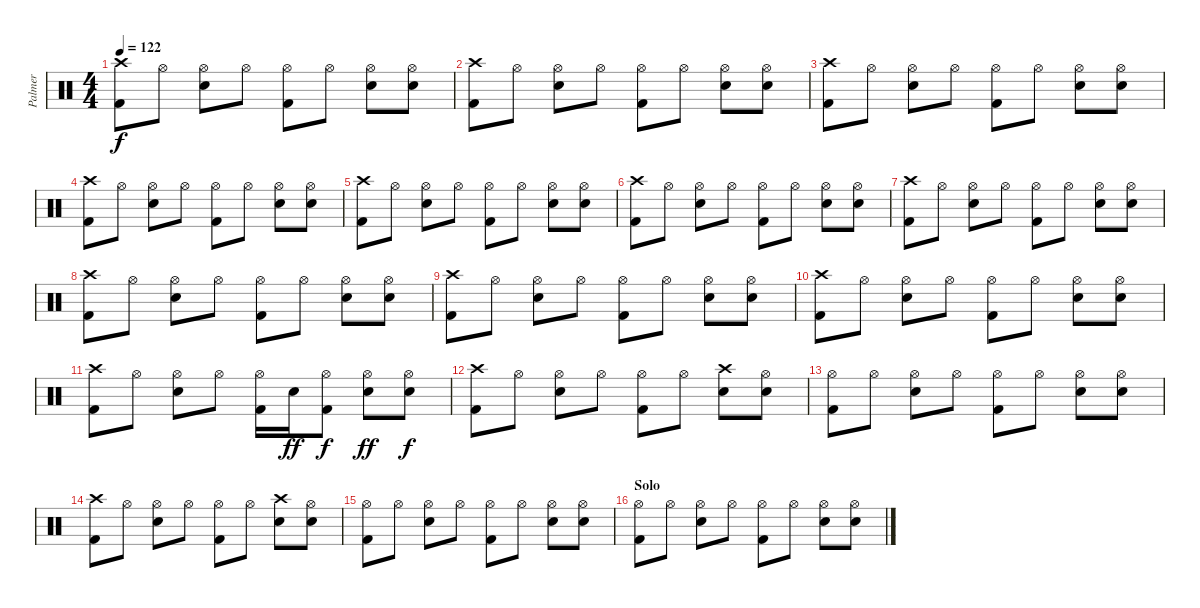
\track ("Palmer" "Palmer") {instrument percussion}
\staff {score}
\articulation defaults
\ts (4 4)
\tempo 122
\clef neutral
\ks c
("Crash high (hit)" "Kick (hit) 2").8{dy f} "Hi-Hat (open)".8 ("Hi-Hat (open)" "Electric Snare (hit)").8 "Hi-Hat (open)".8 ("Hi-Hat (open)" "Kick (hit) 2").8 "Hi-Hat (open)".8 ("Hi-Hat (open)" "Electric Snare (hit)").8 ("Hi-Hat (open)" "Electric Snare (hit)").8 |
("Crash high (hit)" "Kick (hit) 2").8 "Hi-Hat (open)".8 ("Hi-Hat (open)" "Electric Snare (hit)").8 "Hi-Hat (open)".8 ("Hi-Hat (open)" "Kick (hit) 2").8 "Hi-Hat (open)".8 ("Hi-Hat (open)" "Electric Snare (hit)").8 ("Hi-Hat (open)" "Electric Snare (hit)").8 |
("Crash high (hit)" "Kick (hit) 2").8 "Hi-Hat (open)".8 ("Hi-Hat (open)" "Electric Snare (hit)").8 "Hi-Hat (open)".8 ("Hi-Hat (open)" "Kick (hit) 2").8 "Hi-Hat (open)".8 ("Hi-Hat (open)" "Electric Snare (hit)").8 ("Hi-Hat (open)" "Electric Snare (hit)").8 |
("Crash high (hit)" "Kick (hit) 2").8 "Hi-Hat (open)".8 ("Hi-Hat (open)" "Electric Snare (hit)").8 "Hi-Hat (open)".8 ("Hi-Hat (open)" "Kick (hit) 2").8 "Hi-Hat (open)".8 ("Hi-Hat (open)" "Electric Snare (hit)").8 ("Hi-Hat (open)" "Electric Snare (hit)").8 |
("Crash high (hit)" "Kick (hit) 2").8 "Hi-Hat (open)".8 ("Hi-Hat (open)" "Electric Snare (hit)").8 "Hi-Hat (open)".8 ("Hi-Hat (open)" "Kick (hit) 2").8 "Hi-Hat (open)".8 ("Hi-Hat (open)" "Electric Snare (hit)").8 ("Hi-Hat (open)" "Electric Snare (hit)").8 |
("Crash high (hit)" "Kick (hit) 2").8 "Hi-Hat (open)".8 ("Hi-Hat (open)" "Electric Snare (hit)").8 "Hi-Hat (open)".8 ("Hi-Hat (open)" "Kick (hit) 2").8 "Hi-Hat (open)".8 ("Hi-Hat (open)" "Electric Snare (hit)").8 ("Hi-Hat (open)" "Electric Snare (hit)").8 |
("Crash high (hit)" "Kick (hit) 2").8 "Hi-Hat (open)".8 ("Hi-Hat (open)" "Electric Snare (hit)").8 "Hi-Hat (open)".8 ("Hi-Hat (open)" "Kick (hit) 2").8 "Hi-Hat (open)".8 ("Hi-Hat (open)" "Electric Snare (hit)").8 ("Hi-Hat (open)" "Electric Snare (hit)").8 |
("Crash high (hit)" "Kick (hit) 2").8 "Hi-Hat (open)".8 ("Hi-Hat (open)" "Electric Snare (hit)").8 "Hi-Hat (open)".8 ("Hi-Hat (open)" "Kick (hit) 2").8 "Hi-Hat (open)".8 ("Hi-Hat (open)" "Electric Snare (hit)").8 ("Hi-Hat (open)" "Electric Snare (hit)").8 |
("Crash high (hit)" "Kick (hit) 2").8 "Hi-Hat (open)".8 ("Hi-Hat (open)" "Electric Snare (hit)").8 "Hi-Hat (open)".8 ("Hi-Hat (open)" "Kick (hit) 2").8 "Hi-Hat (open)".8 ("Hi-Hat (open)" "Electric Snare (hit)").8 ("Hi-Hat (open)" "Electric Snare (hit)").8 |
("Crash high (hit)" "Kick (hit) 2").8 "Hi-Hat (open)".8 ("Hi-Hat (open)" "Electric Snare (hit)").8 "Hi-Hat (open)".8 ("Hi-Hat (open)" "Kick (hit) 2").8 "Hi-Hat (open)".8 ("Hi-Hat (open)" "Electric Snare (hit)").8 ("Hi-Hat (open)" "Electric Snare (hit)").8 |
("Crash high (hit)" "Kick (hit) 2").8 "Hi-Hat (open)".8 ("Hi-Hat (open)" "Electric Snare (hit)").8 "Hi-Hat (open)".8 ("Hi-Hat (open)" "Kick (hit) 2").16 "Electric Snare (hit)".16{dy ff} ("Hi-Hat (open)" "Kick (hit) 2").8{dy f} ("Hi-Hat (open)" "Electric Snare (hit)").8{dy ff} ("Hi-Hat (open)" "Electric Snare (hit)").8{dy f} |
("Crash high (hit)" "Kick (hit) 2").8 "Hi-Hat (open)".8 ("Hi-Hat (open)" "Electric Snare (hit)").8 "Hi-Hat (open)".8 ("Hi-Hat (open)" "Kick (hit) 2").8 "Hi-Hat (open)".8 ("Crash high (hit)" "Electric Snare (hit)").8 ("Hi-Hat (open)" "Electric Snare (hit)").8 |
("Hi-Hat (open)" "Kick (hit) 2").8 "Hi-Hat (open)".8 ("Hi-Hat (open)" "Electric Snare (hit)").8 "Hi-Hat (open)".8 ("Hi-Hat (open)" "Kick (hit) 2").8 "Hi-Hat (open)".8 ("Hi-Hat (open)" "Electric Snare (hit)").8 ("Hi-Hat (open)" "Electric Snare (hit)").8 |
("Crash high (hit)" "Kick (hit) 2").8 "Hi-Hat (open)".8 ("Hi-Hat (open)" "Electric Snare (hit)").8 "Hi-Hat (open)".8 ("Hi-Hat (open)" "Kick (hit) 2").8 "Hi-Hat (open)".8 ("Crash high (hit)" "Electric Snare (hit)").8 ("Hi-Hat (open)" "Electric Snare (hit)").8 |
("Hi-Hat (open)" "Kick (hit) 2").8 "Hi-Hat (open)".8 ("Hi-Hat (open)" "Electric Snare (hit)").8 "Hi-Hat (open)".8 ("Hi-Hat (open)" "Kick (hit) 2").8 "Hi-Hat (open)".8 ("Hi-Hat (open)" "Electric Snare (hit)").8 ("Hi-Hat (open)" "Electric Snare (hit)").8 |
\section ("" "Solo")
("Hi-Hat (open)" "Kick (hit) 2").8 "Hi-Hat (open)".8 ("Hi-Hat (open)" "Electric Snare (hit)").8 "Hi-Hat (open)".8 ("Hi-Hat (open)" "Kick (hit) 2").8 "Hi-Hat (open)".8 ("Hi-Hat (open)" "Electric Snare (hit)").8 ("Hi-Hat (open)" "Electric Snare (hit)").8
